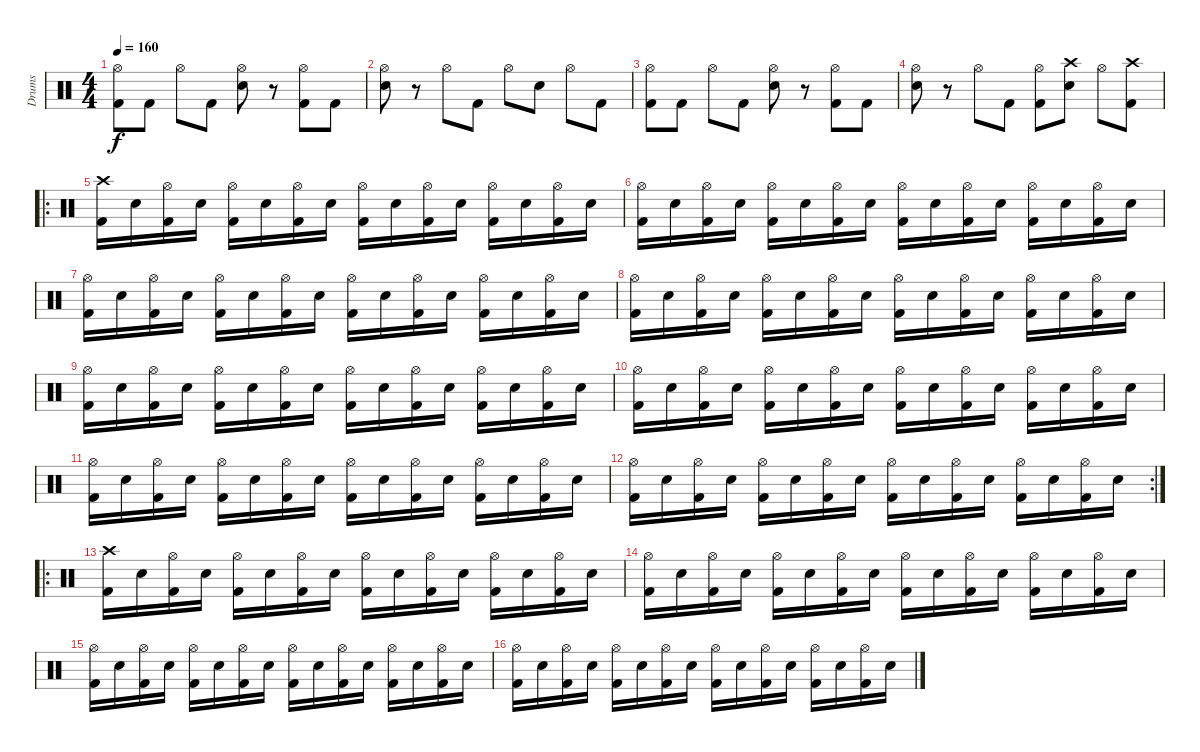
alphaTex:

\track ("Drums" "Drums") {instrument percussion}
\staff {score}
\articulation defaults
\ts (4 4)
\tempo 160
\clef neutral
\ks c
("Hi-Hat (open)" "Kick (hit) 2").8{dy f} "Kick (hit) 2".8 "Hi-Hat (open)".8 "Kick (hit) 2".8 ("Hi-Hat (open)" "Snare (hit) 2").8 r.8 ("Hi-Hat (open)" "Kick (hit) 2").8 "Kick (hit) 2".8 |
("Hi-Hat (open)" "Snare (hit) 2").8 r.8 "Hi-Hat (open)".8 "Kick (hit) 2".8 "Hi-Hat (open)".8 "Snare (hit) 2".8 "Hi-Hat (open)".8 "Kick (hit) 2".8 |
("Hi-Hat (open)" "Kick (hit) 2").8 "Kick (hit) 2".8 "Hi-Hat (open)".8 "Kick (hit) 2".8 ("Hi-Hat (open)" "Snare (hit) 2").8 r.8 ("Hi-Hat (open)" "Kick (hit) 2").8 "Kick (hit) 2".8 |
("Hi-Hat (open)" "Snare (hit) 2").8 r.8 "Hi-Hat (open)".8 "Kick (hit) 2".8 ("Hi-Hat (open)" "Kick (hit) 2").8 ("Crash high (hit)" "Snare (hit) 2").8 "Hi-Hat (open)".8 ("Crash high (hit)" "Kick (hit) 2").8 |
\ro
("Crash high (hit)" "Kick (hit) 2").16 "Snare (hit) 2".16 ("Hi-Hat (open)" "Kick (hit) 2").16 "Snare (hit) 2".16 ("Hi-Hat (open)" "Kick (hit) 2").16 "Snare (hit) 2".16 ("Hi-Hat (open)" "Kick (hit) 2").16 "Snare (hit) 2".16 ("Hi-Hat (open)" "Kick (hit) 2").16 "Snare (hit) 2".16 ("Hi-Hat (open)" "Kick (hit) 2").16 "Snare (hit) 2".16 ("Hi-Hat (open)" "Kick (hit) 2").16 "Snare (hit) 2".16 ("Hi-Hat (open)" "Kick (hit) 2").16 "Snare (hit) 2".16 |
("Hi-Hat (open)" "Kick (hit) 2").16 "Snare (hit) 2".16 ("Hi-Hat (open)" "Kick (hit) 2").16 "Snare (hit) 2".16 ("Hi-Hat (open)" "Kick (hit) 2").16 "Snare (hit) 2".16 ("Hi-Hat (open)" "Kick (hit) 2").16 "Snare (hit) 2".16 ("Hi-Hat (open)" "Kick (hit) 2").16 "Snare (hit) 2".16 ("Hi-Hat (open)" "Kick (hit) 2").16 "Snare (hit) 2".16 ("Hi-Hat (open)" "Kick (hit) 2").16 "Snare (hit) 2".16 ("Hi-Hat (open)" "Kick (hit) 2").16 "Snare (hit) 2".16 |
("Hi-Hat (open)" "Kick (hit) 2").16 "Snare (hit) 2".16 ("Hi-Hat (open)" "Kick (hit) 2").16 "Snare (hit) 2".16 ("Hi-Hat (open)" "Kick (hit) 2").16 "Snare (hit) 2".16 ("Hi-Hat (open)" "Kick (hit) 2").16 "Snare (hit) 2".16 ("Hi-Hat (open)" "Kick (hit) 2").16 "Snare (hit) 2".16 ("Hi-Hat (open)" "Kick (hit) 2").16 "Snare (hit) 2".16 ("Hi-Hat (open)" "Kick (hit) 2").16 "Snare (hit) 2".16 ("Hi-Hat (open)" "Kick (hit) 2").16 "Snare (hit) 2".16 |
("Hi-Hat (open)" "Kick (hit) 2").16 "Snare (hit) 2".16 ("Hi-Hat (open)" "Kick (hit) 2").16 "Snare (hit) 2".16 ("Hi-Hat (open)" "Kick (hit) 2").16 "Snare (hit) 2".16 ("Hi-Hat (open)" "Kick (hit) 2").16 "Snare (hit) 2".16 ("Hi-Hat (open)" "Kick (hit) 2").16 "Snare (hit) 2".16 ("Hi-Hat (open)" "Kick (hit) 2").16 "Snare (hit) 2".16 ("Hi-Hat (open)" "Kick (hit) 2").16 "Snare (hit) 2".16 ("Hi-Hat (open)" "Kick (hit) 2").16 "Snare (hit) 2".16 |
("Hi-Hat (open)" "Kick (hit) 2").16 "Snare (hit) 2".16 ("Hi-Hat (open)" "Kick (hit) 2").16 "Snare (hit) 2".16 ("Hi-Hat (open)" "Kick (hit) 2").16 "Snare (hit) 2".16 ("Hi-Hat (open)" "Kick (hit) 2").16 "Snare (hit) 2".16 ("Hi-Hat (open)" "Kick (hit) 2").16 "Snare (hit) 2".16 ("Hi-Hat (open)" "Kick (hit) 2").16 "Snare (hit) 2".16 ("Hi-Hat (open)" "Kick (hit) 2").16 "Snare (hit) 2".16 ("Hi-Hat (open)" "Kick (hit) 2").16 "Snare (hit) 2".16 |
("Hi-Hat (open)" "Kick (hit) 2").16 "Snare (hit) 2".16 ("Hi-Hat (open)" "Kick (hit) 2").16 "Snare (hit) 2".16 ("Hi-Hat (open)" "Kick (hit) 2").16 "Snare (hit) 2".16 ("Hi-Hat (open)" "Kick (hit) 2").16 "Snare (hit) 2".16 ("Hi-Hat (open)" "Kick (hit) 2").16 "Snare (hit) 2".16 ("Hi-Hat (open)" "Kick (hit) 2").16 "Snare (hit) 2".16 ("Hi-Hat (open)" "Kick (hit) 2").16 "Snare (hit) 2".16 ("Hi-Hat (open)" "Kick (hit) 2").16 "Snare (hit) 2".16 |
("Hi-Hat (open)" "Kick (hit) 2").16 "Snare (hit) 2".16 ("Hi-Hat (open)" "Kick (hit) 2").16 "Snare (hit) 2".16 ("Hi-Hat (open)" "Kick (hit) 2").16 "Snare (hit) 2".16 ("Hi-Hat (open)" "Kick (hit) 2").16 "Snare (hit) 2".16 ("Hi-Hat (open)" "Kick (hit) 2").16 "Snare (hit) 2".16 ("Hi-Hat (open)" "Kick (hit) 2").16 "Snare (hit) 2".16 ("Hi-Hat (open)" "Kick (hit) 2").16 "Snare (hit) 2".16 ("Hi-Hat (open)" "Kick (hit) 2").16 "Snare (hit) 2".16 |
\rc 2
("Hi-Hat (open)" "Kick (hit) 2").16 "Snare (hit) 2".16 ("Hi-Hat (open)" "Kick (hit) 2").16 "Snare (hit) 2".16 ("Hi-Hat (open)" "Kick (hit) 2").16 "Snare (hit) 2".16 ("Hi-Hat (open)" "Kick (hit) 2").16 "Snare (hit) 2".16 ("Hi-Hat (open)" "Kick (hit) 2").16 "Snare (hit) 2".16 ("Hi-Hat (open)" "Kick (hit) 2").16 "Snare (hit) 2".16 ("Hi-Hat (open)" "Kick (hit) 2").16 "Snare (hit) 2".16 ("Hi-Hat (open)" "Kick (hit) 2").16 "Snare (hit) 2".16 |
\ro
("Crash high (hit)" "Kick (hit) 2").16 "Snare (hit) 2".16 ("Hi-Hat (open)" "Kick (hit) 2").16 "Snare (hit) 2".16 ("Hi-Hat (open)" "Kick (hit) 2").16 "Snare (hit) 2".16 ("Hi-Hat (open)" "Kick (hit) 2").16 "Snare (hit) 2".16 ("Hi-Hat (open)" "Kick (hit) 2").16 "Snare (hit) 2".16 ("Hi-Hat (open)" "Kick (hit) 2").16 "Snare (hit) 2".16 ("Hi-Hat (open)" "Kick (hit) 2").16 "Snare (hit) 2".16 ("Hi-Hat (open)" "Kick (hit) 2").16 "Snare (hit) 2".16 |
("Hi-Hat (open)" "Kick (hit) 2").16 "Snare (hit) 2".16 ("Hi-Hat (open)" "Kick (hit) 2").16 "Snare (hit) 2".16 ("Hi-Hat (open)" "Kick (hit) 2").16 "Snare (hit) 2".16 ("Hi-Hat (open)" "Kick (hit) 2").16 "Snare (hit) 2".16 ("Hi-Hat (open)" "Kick (hit) 2").16 "Snare (hit) 2".16 ("Hi-Hat (open)" "Kick (hit) 2").16 "Snare (hit) 2".16 ("Hi-Hat (open)" "Kick (hit) 2").16 "Snare (hit) 2".16 ("Hi-Hat (open)" "Kick (hit) 2").16 "Snare (hit) 2".16 |
("Hi-Hat (open)" "Kick (hit) 2").16 "Snare (hit) 2".16 ("Hi-Hat (open)" "Kick (hit) 2").16 "Snare (hit) 2".16 ("Hi-Hat (open)" "Kick (hit) 2").16 "Snare (hit) 2".16 ("Hi-Hat (open)" "Kick (hit) 2").16 "Snare (hit) 2".16 ("Hi-Hat (open)" "Kick (hit) 2").16 "Snare (hit) 2".16 ("Hi-Hat (open)" "Kick (hit) 2").16 "Snare (hit) 2".16 ("Hi-Hat (open)" "Kick (hit) 2").16 "Snare (hit) 2".16 ("Hi-Hat (open)" "Kick (hit) 2").16 "Snare (hit) 2".16 |
("Hi-Hat (open)" "Kick (hit) 2").16 "Snare (hit) 2".16 ("Hi-Hat (open)" "Kick (hit) 2").16 "Snare (hit) 2".16 ("Hi-Hat (open)" "Kick (hit) 2").16 "Snare (hit) 2".16 ("Hi-Hat (open)" "Kick (hit) 2").16 "Snare (hit) 2".16 ("Hi-Hat (open)" "Kick (hit) 2").16 "Snare (hit) 2".16 ("Hi-Hat (open)" "Kick (hit) 2").16 "Snare (hit) 2".16 ("Hi-Hat (open)" "Kick (hit) 2").16 "Snare (hit) 2".16 ("Hi-Hat (open)" "Kick (hit) 2").16 "Snare (hit) 2".16
